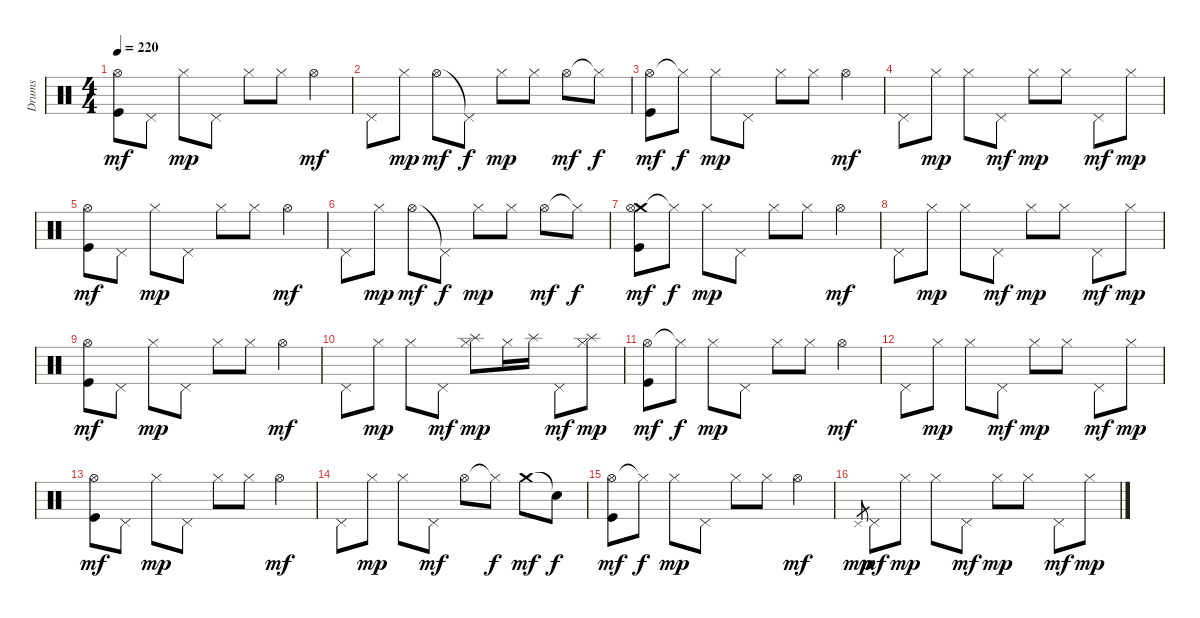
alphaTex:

\track ("Drums" "Drums") {instrument percussion}
\staff {score}
\articulation defaults
\ts (4 4)
\tempo 220
\clef neutral
\ks c
("Hi-Hat (open)" "Kick (hit)").8{dy mf} "Pedal Hi-Hat (hit)".8 "Hi-Hat (closed)".8{dy mp} "Pedal Hi-Hat (hit)".8 "Hi-Hat (closed)".8 "Hi-Hat (closed)".8 "Hi-Hat (open)".4{dy mf} |
"Pedal Hi-Hat (hit)".8 "Hi-Hat (closed)".8{dy mp} "Hi-Hat (open)".8{dy mf} "Pedal Hi-Hat (hit)"{t}.8{dy f} "Hi-Hat (closed)".8{dy mp} "Hi-Hat (closed)".8 "Hi-Hat (open)".8{dy mf} "Hi-Hat (closed)"{t}.8{dy f} |
("Hi-Hat (open)" "Kick (hit)").8{dy mf} "Hi-Hat (closed)"{t}.8{dy f} "Hi-Hat (closed)".8{dy mp} "Pedal Hi-Hat (hit)".8 "Hi-Hat (closed)".8 "Hi-Hat (closed)".8 "Hi-Hat (open)".4{dy mf} |
"Pedal Hi-Hat (hit)".8 "Hi-Hat (closed)".8{dy mp} "Hi-Hat (closed)".8 "Pedal Hi-Hat (hit)".8{dy mf} "Hi-Hat (closed)".8{dy mp} "Hi-Hat (closed)".8 "Pedal Hi-Hat (hit)".8{dy mf} "Hi-Hat (closed)".8{dy mp} |
("Hi-Hat (open)" "Kick (hit)").8{dy mf} "Pedal Hi-Hat (hit)".8 "Hi-Hat (closed)".8{dy mp} "Pedal Hi-Hat (hit)".8 "Hi-Hat (closed)".8 "Hi-Hat (closed)".8 "Hi-Hat (open)".4{dy mf} |
"Pedal Hi-Hat (hit)".8 "Hi-Hat (closed)".8{dy mp} "Hi-Hat (open)".8{dy mf} "Pedal Hi-Hat (hit)"{t}.8{dy f} "Hi-Hat (closed)".8{dy mp} "Hi-Hat (closed)".8 "Hi-Hat (open)".8{dy mf} "Hi-Hat (closed)"{t}.8{dy f} |
("Crash medium (hit)" "Hi-Hat (open)" "Kick (hit)").8{dy mf} "Hi-Hat (closed)"{t}.8{dy f} "Hi-Hat (closed)".8{dy mp} "Pedal Hi-Hat (hit)".8 "Hi-Hat (closed)".8 "Hi-Hat (closed)".8 "Hi-Hat (open)".4{dy mf} |
"Pedal Hi-Hat (hit)".8 "Hi-Hat (closed)".8{dy mp} "Hi-Hat (closed)".8 "Pedal Hi-Hat (hit)".8{dy mf} "Hi-Hat (closed)".8{dy mp} "Hi-Hat (closed)".8 "Pedal Hi-Hat (hit)".8{dy mf} "Hi-Hat (closed)".8{dy mp} |
("Hi-Hat (open)" "Kick (hit)").8{dy mf} "Pedal Hi-Hat (hit)".8 "Hi-Hat (closed)".8{dy mp} "Pedal Hi-Hat (hit)".8 "Hi-Hat (closed)".8 "Hi-Hat (closed)".8 "Hi-Hat (open)".4{dy mf} |
"Pedal Hi-Hat (hit)".8 "Hi-Hat (closed)".8{dy mp} "Hi-Hat (closed)".8 "Pedal Hi-Hat (hit)".8{dy mf} ("Splash (hit)" "Hi-Hat (closed)").8{dy mp} "Hi-Hat (closed)".16 "Splash (hit)".16 "Pedal Hi-Hat (hit)".8{dy mf} ("Splash (hit)" "Hi-Hat (closed)").8{dy mp} |
("Hi-Hat (open)" "Kick (hit)").8{dy mf} "Hi-Hat (closed)"{t}.8{dy f} "Hi-Hat (closed)".8{dy mp} "Pedal Hi-Hat (hit)".8 "Hi-Hat (closed)".8 "Hi-Hat (closed)".8 "Hi-Hat (open)".4{dy mf} |
"Pedal Hi-Hat (hit)".8 "Hi-Hat (closed)".8{dy mp} "Hi-Hat (closed)".8 "Pedal Hi-Hat (hit)".8{dy mf} "Hi-Hat (closed)".8{dy mp} "Hi-Hat (closed)".8 "Pedal Hi-Hat (hit)".8{dy mf} "Hi-Hat (closed)".8{dy mp} |
("Hi-Hat (open)" "Kick (hit)").8{dy mf} "Pedal Hi-Hat (hit)".8 "Hi-Hat (closed)".8{dy mp} "Pedal Hi-Hat (hit)".8 "Hi-Hat (closed)".8 "Hi-Hat (closed)".8 "Hi-Hat (open)".4{dy mf} |
"Pedal Hi-Hat (hit)".8 "Hi-Hat (closed)".8{dy mp} "Hi-Hat (closed)".8 "Pedal Hi-Hat (hit)".8{dy mf} "Hi-Hat (open)".8 "Hi-Hat (closed)"{t}.8{dy f} "Crash medium (hit)".8{dy mf} "Snare (hit)"{t}.8{dy f} |
("Hi-Hat (open)" "Kick (hit)").8{dy mf} "Hi-Hat (closed)"{t}.8{dy f} "Hi-Hat (closed)".8{dy mp} "Pedal Hi-Hat (hit)".8 "Hi-Hat (closed)".8 "Hi-Hat (closed)".8 "Hi-Hat (open)".4{dy mf} |
"Pedal Hi-Hat (hit)".8{gr dy mp} "Pedal Hi-Hat (hit)".8{dy mf} "Hi-Hat (closed)".8{dy mp} "Hi-Hat (closed)".8 "Pedal Hi-Hat (hit)".8{dy mf} "Hi-Hat (closed)".8{dy mp} "Hi-Hat (closed)".8 "Pedal Hi-Hat (hit)".8{dy mf} "Hi-Hat (closed)".8{dy mp}
